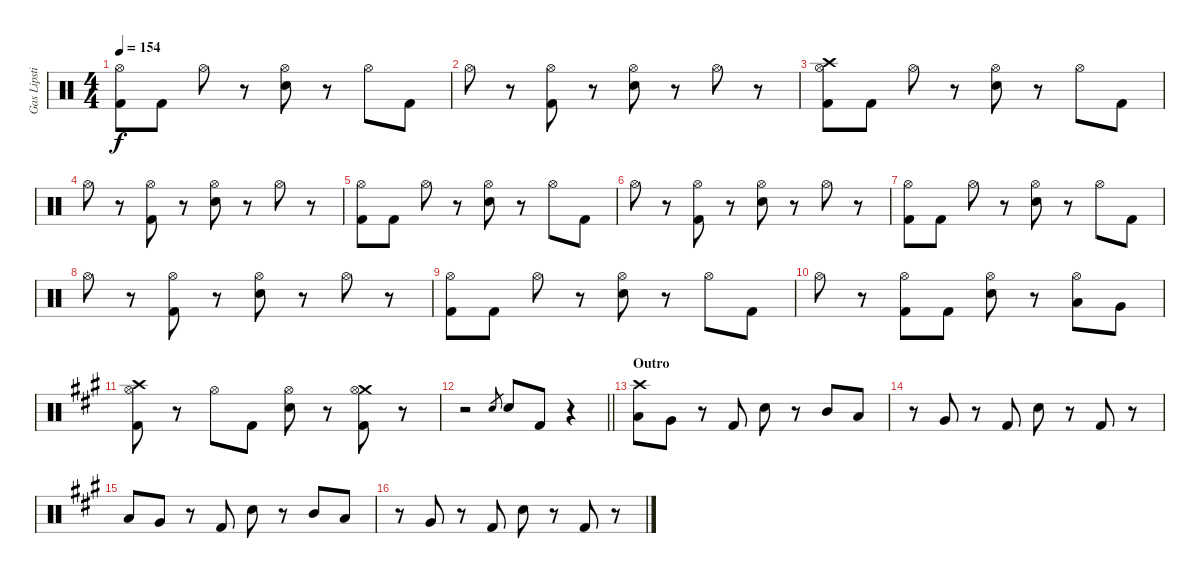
\track ("Gas Lipstick (Drums)" "Gas Lipsti") {instrument percussion}
\staff {score}
\articulation defaults
\ts (4 4)
\tempo 154
\clef neutral
\ks c
("Hi-Hat (open)" "Kick (hit) 2").8{dy f} "Kick (hit) 2".8 "Hi-Hat (open)".8 r.8 ("Hi-Hat (open)" "Snare (hit) 2").8 r.8 "Hi-Hat (open)".8 "Kick (hit) 2".8 |
"Hi-Hat (open)".8 r.8 ("Hi-Hat (open)" "Kick (hit) 2").8 r.8 ("Hi-Hat (open)" "Snare (hit) 2").8 r.8 "Hi-Hat (open)".8 r.8 |
("Crash high (hit)" "Hi-Hat (open)" "Kick (hit) 2").8 "Kick (hit) 2".8 "Hi-Hat (open)".8 r.8 ("Hi-Hat (open)" "Snare (hit) 2").8 r.8 "Hi-Hat (open)".8 "Kick (hit) 2".8 |
"Hi-Hat (open)".8 r.8 ("Hi-Hat (open)" "Kick (hit) 2").8 r.8 ("Hi-Hat (open)" "Snare (hit) 2").8 r.8 "Hi-Hat (open)".8 r.8 |
("Hi-Hat (open)" "Kick (hit) 2").8 "Kick (hit) 2".8 "Hi-Hat (open)".8 r.8 ("Hi-Hat (open)" "Snare (hit) 2").8 r.8 "Hi-Hat (open)".8 "Kick (hit) 2".8 |
"Hi-Hat (open)".8 r.8 ("Hi-Hat (open)" "Kick (hit) 2").8 r.8 ("Hi-Hat (open)" "Snare (hit) 2").8 r.8 "Hi-Hat (open)".8 r.8 |
("Hi-Hat (open)" "Kick (hit) 2").8 "Kick (hit) 2".8 "Hi-Hat (open)".8 r.8 ("Hi-Hat (open)" "Snare (hit) 2").8 r.8 "Hi-Hat (open)".8 "Kick (hit) 2".8 |
"Hi-Hat (open)".8 r.8 ("Hi-Hat (open)" "Kick (hit) 2").8 r.8 ("Hi-Hat (open)" "Snare (hit) 2").8 r.8 "Hi-Hat (open)".8 r.8 |
("Hi-Hat (open)" "Kick (hit) 2").8 "Kick (hit) 2".8 "Hi-Hat (open)".8 r.8 ("Hi-Hat (open)" "Snare (hit) 2").8 r.8 "Hi-Hat (open)".8 "Kick (hit) 2".8 |
"Hi-Hat (open)".8 r.8 ("Hi-Hat (open)" "Kick (hit) 2").8 "Kick (hit) 2".8 ("Hi-Hat (open)" "Snare (hit) 2").8 r.8 ("Hi-Hat (open)" "Low Tom (hit)").8 "Very Low Tom (hit)".8 |
\ks a
("Crash high (hit)" "Hi-Hat (open)" "Kick (hit) 2").8 r.8 "Hi-Hat (open)".8 "Kick (hit) 2".8 ("Hi-Hat (open)" "Snare (hit) 2").8 r.8 ("Crash medium (hit)" "Hi-Hat (open)" "Kick (hit) 2").8 r.8 |
\barLineRight lightlight
r.2 "Snare (hit) 2".8{gr} "Snare (hit) 2".8 "Kick (hit) 2".8 r.4 |
\section ("" "Outro")
("Crash high (hit)" "Low Tom (hit)").8 "Very Low Tom (hit)".8 r.8 "Kick (hit) 2".8 "Snare (hit) 2".8 r.8 "Mid Tom (hit)".8 "Low Tom (hit)".8 |
r.8 "Very Low Tom (hit)".8 r.8 "Kick (hit) 2".8 "Snare (hit) 2".8 r.8 "Kick (hit) 2".8 r.8 |
"Low Tom (hit)".8 "Very Low Tom (hit)".8 r.8 "Kick (hit) 2".8 "Snare (hit) 2".8 r.8 "Mid Tom (hit)".8 "Low Tom (hit)".8 |
r.8 "Very Low Tom (hit)".8 r.8 "Kick (hit) 2".8 "Snare (hit) 2".8 r.8 "Kick (hit) 2".8 r.8
